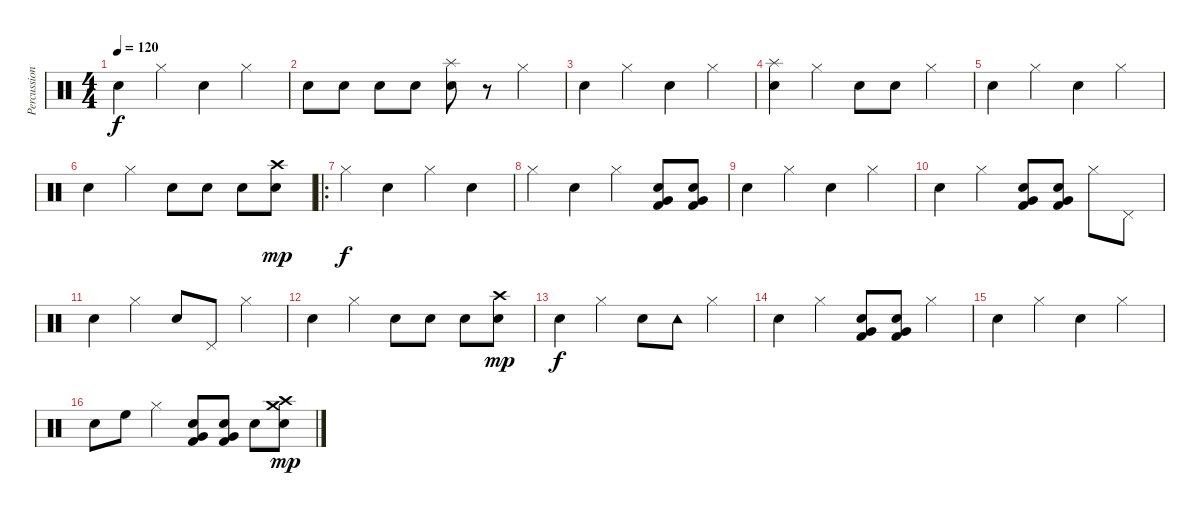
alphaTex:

\track ("Percussion" "Percussion") {instrument percussion}
\staff {score}
\articulation defaults
\ts (4 4)
\tempo 120
\clef neutral
\ks c "Snare (hit) 2".4{dy f} "Hi-Hat (closed)".4 "Electric Snare (hit)".4 "Hi-Hat (closed)".4
|
"Snare (hit) 2".8 "Snare (hit) 2".8 "Snare (hit) 2".8 "Snare (hit) 2".8 ("Splash (hit)" "Electric Snare (hit)").8 r.8 "Hi-Hat (closed)".4 |
"Electric Snare (hit)".4 "Hi-Hat (closed)".4 "Snare (hit) 2".4 "Hi-Hat (closed)".4 |
("Splash (hit)" "Electric Snare (hit)").4 "Hi-Hat (closed)".4 "Snare (hit) 2".8 "Snare (hit) 2".8 "Hi-Hat (closed)".4 |
"Electric Snare (hit)".4 "Hi-Hat (closed)".4 "Snare (hit) 2".4 "Hi-Hat (closed)".4 |
"Electric Snare (hit)".4 "Hi-Hat (closed)".4 "Snare (hit) 2".8 "Snare (hit) 2".8 "Snare (hit) 2".8 ("Crash high (hit)" "Snare (hit) 2").8{dy mp} |
\ro "Hi-Hat (closed)".4{dy f} "Electric Snare (hit)".4 "Hi-Hat (closed)".4 "Snare (hit) 2".4
|
"Hi-Hat (closed)".4 "Electric Snare (hit)".4 "Hi-Hat (closed)".4 ("Snare (hit) 2" "Kick (hit) 2" "Very Low Tom (hit)").8 ("Snare (hit) 2" "Kick (hit) 2" "Very Low Tom (hit)").8 |
"Electric Snare (hit)".4 "Hi-Hat (closed)".4 "Snare (hit) 2".4 "Hi-Hat (closed)".4 |
"Electric Snare (hit)".4 "Hi-Hat (closed)".4 ("Snare (hit) 2" "Kick (hit) 2" "Very Low Tom (hit)").8 ("Snare (hit) 2" "Kick (hit) 2" "Very Low Tom (hit)").8 "Hi-Hat (closed)".8 "Pedal Hi-Hat (hit)".8 |
"Electric Snare (hit)".4 "Hi-Hat (closed)".4 "Snare (hit) 2".8 "Pedal Hi-Hat (hit)".8 "Hi-Hat (closed)".4 |
"Electric Snare (hit)".4 "Hi-Hat (closed)".4 "Snare (hit) 2".8 "Snare (hit) 2".8 "Snare (hit) 2".8 ("Crash high (hit)" "Snare (hit) 2").8{dy mp} |
"Electric Snare (hit)".4{dy f} "Hi-Hat (closed)".4 "Snare (hit) 2".8 "Tambourine (hit)".8 "Hi-Hat (closed)".4 |
"Electric Snare (hit)".4 "Hi-Hat (closed)".4 ("Snare (hit) 2" "Kick (hit) 2" "Very Low Tom (hit)").8 ("Snare (hit) 2" "Kick (hit) 2" "Very Low Tom (hit)").8 "Hi-Hat (closed)".4 |
"Electric Snare (hit)".4 "Hi-Hat (closed)".4 "Snare (hit) 2".4 "Hi-Hat (closed)".4 |
"Electric Snare (hit)".8 "High Floor Tom (hit)".8 "Hi-Hat (closed)".4 ("Snare (hit) 2" "Kick (hit) 2" "Very Low Tom (hit)").8 ("Snare (hit) 2" "Kick (hit) 2" "Very Low Tom (hit)").8 "Snare (hit) 2".8 ("Crash medium (hit)" "Crash high (hit)" "Snare (hit) 2").8{dy mp}
